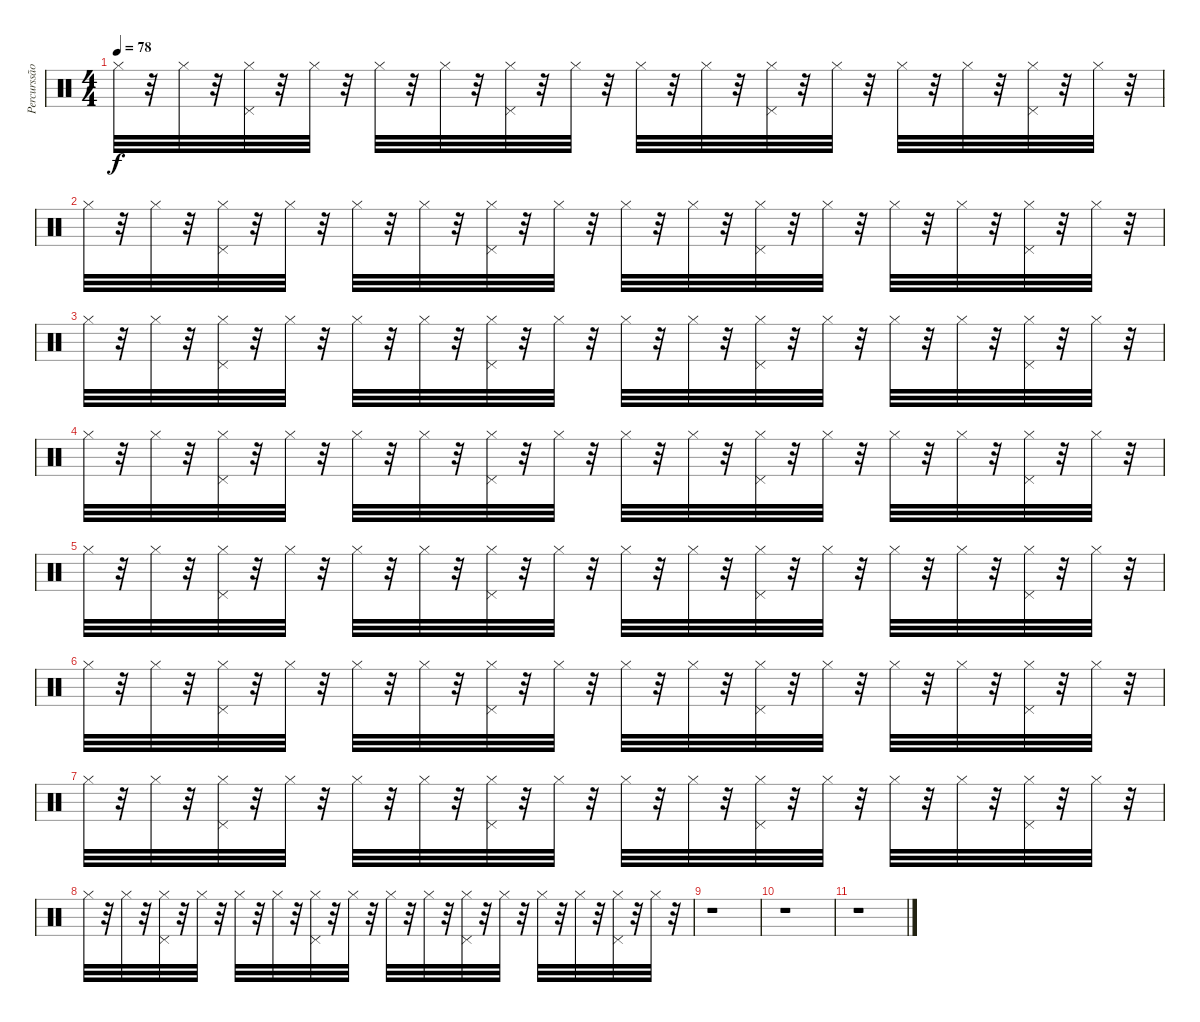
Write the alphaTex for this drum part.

\track ("Percurssão" "Percurssão") {instrument percussion}
\staff {score}
\articulation defaults
\ts (4 4)
\tempo 78
\clef neutral
\ks c "Hi-Hat (closed)".32{dy f}
r.32 "Hi-Hat (closed)".32 r.32 ("Hi-Hat (closed)" "Pedal Hi-Hat (hit)").32 r.32 "Hi-Hat (closed)".32 r.32 "Hi-Hat (closed)".32 r.32 "Hi-Hat (closed)".32 r.32 ("Hi-Hat (closed)" "Pedal Hi-Hat (hit)").32 r.32 "Hi-Hat (closed)".32 r.32 "Hi-Hat (closed)".32 r.32 "Hi-Hat (closed)".32 r.32 ("Hi-Hat (closed)" "Pedal Hi-Hat (hit)").32 r.32 "Hi-Hat (closed)".32 r.32 "Hi-Hat (closed)".32 r.32 "Hi-Hat (closed)".32 r.32 ("Hi-Hat (closed)" "Pedal Hi-Hat (hit)").32 r.32 "Hi-Hat (closed)".32 r.32 |
"Hi-Hat (closed)".32 r.32 "Hi-Hat (closed)".32 r.32 ("Hi-Hat (closed)" "Pedal Hi-Hat (hit)").32 r.32 "Hi-Hat (closed)".32 r.32 "Hi-Hat (closed)".32 r.32 "Hi-Hat (closed)".32 r.32 ("Hi-Hat (closed)" "Pedal Hi-Hat (hit)").32 r.32 "Hi-Hat (closed)".32 r.32 "Hi-Hat (closed)".32 r.32 "Hi-Hat (closed)".32 r.32 ("Hi-Hat (closed)" "Pedal Hi-Hat (hit)").32 r.32 "Hi-Hat (closed)".32 r.32 "Hi-Hat (closed)".32 r.32 "Hi-Hat (closed)".32 r.32 ("Hi-Hat (closed)" "Pedal Hi-Hat (hit)").32 r.32 "Hi-Hat (closed)".32 r.32 |
"Hi-Hat (closed)".32 r.32 "Hi-Hat (closed)".32 r.32 ("Hi-Hat (closed)" "Pedal Hi-Hat (hit)").32 r.32 "Hi-Hat (closed)".32 r.32 "Hi-Hat (closed)".32 r.32 "Hi-Hat (closed)".32 r.32 ("Hi-Hat (closed)" "Pedal Hi-Hat (hit)").32 r.32 "Hi-Hat (closed)".32 r.32 "Hi-Hat (closed)".32 r.32 "Hi-Hat (closed)".32 r.32 ("Hi-Hat (closed)" "Pedal Hi-Hat (hit)").32 r.32 "Hi-Hat (closed)".32 r.32 "Hi-Hat (closed)".32 r.32 "Hi-Hat (closed)".32 r.32 ("Hi-Hat (closed)" "Pedal Hi-Hat (hit)").32 r.32 "Hi-Hat (closed)".32 r.32 |
"Hi-Hat (closed)".32 r.32 "Hi-Hat (closed)".32 r.32 ("Hi-Hat (closed)" "Pedal Hi-Hat (hit)").32 r.32 "Hi-Hat (closed)".32 r.32 "Hi-Hat (closed)".32 r.32 "Hi-Hat (closed)".32 r.32 ("Hi-Hat (closed)" "Pedal Hi-Hat (hit)").32 r.32 "Hi-Hat (closed)".32 r.32 "Hi-Hat (closed)".32 r.32 "Hi-Hat (closed)".32 r.32 ("Hi-Hat (closed)" "Pedal Hi-Hat (hit)").32 r.32 "Hi-Hat (closed)".32 r.32 "Hi-Hat (closed)".32 r.32 "Hi-Hat (closed)".32 r.32 ("Hi-Hat (closed)" "Pedal Hi-Hat (hit)").32 r.32 "Hi-Hat (closed)".32 r.32 |
"Hi-Hat (closed)".32 r.32 "Hi-Hat (closed)".32 r.32 ("Hi-Hat (closed)" "Pedal Hi-Hat (hit)").32 r.32 "Hi-Hat (closed)".32 r.32 "Hi-Hat (closed)".32 r.32 "Hi-Hat (closed)".32 r.32 ("Hi-Hat (closed)" "Pedal Hi-Hat (hit)").32 r.32 "Hi-Hat (closed)".32 r.32 "Hi-Hat (closed)".32 r.32 "Hi-Hat (closed)".32 r.32 ("Hi-Hat (closed)" "Pedal Hi-Hat (hit)").32 r.32 "Hi-Hat (closed)".32 r.32 "Hi-Hat (closed)".32 r.32 "Hi-Hat (closed)".32 r.32 ("Hi-Hat (closed)" "Pedal Hi-Hat (hit)").32 r.32 "Hi-Hat (closed)".32 r.32 |
"Hi-Hat (closed)".32 r.32 "Hi-Hat (closed)".32 r.32 ("Hi-Hat (closed)" "Pedal Hi-Hat (hit)").32 r.32 "Hi-Hat (closed)".32 r.32 "Hi-Hat (closed)".32 r.32 "Hi-Hat (closed)".32 r.32 ("Hi-Hat (closed)" "Pedal Hi-Hat (hit)").32 r.32 "Hi-Hat (closed)".32 r.32 "Hi-Hat (closed)".32 r.32 "Hi-Hat (closed)".32 r.32 ("Hi-Hat (closed)" "Pedal Hi-Hat (hit)").32 r.32 "Hi-Hat (closed)".32 r.32 "Hi-Hat (closed)".32 r.32 "Hi-Hat (closed)".32 r.32 ("Hi-Hat (closed)" "Pedal Hi-Hat (hit)").32 r.32 "Hi-Hat (closed)".32 r.32 |
"Hi-Hat (closed)".32 r.32 "Hi-Hat (closed)".32 r.32 ("Hi-Hat (closed)" "Pedal Hi-Hat (hit)").32 r.32 "Hi-Hat (closed)".32 r.32 "Hi-Hat (closed)".32 r.32 "Hi-Hat (closed)".32 r.32 ("Hi-Hat (closed)" "Pedal Hi-Hat (hit)").32 r.32 "Hi-Hat (closed)".32 r.32 "Hi-Hat (closed)".32 r.32 "Hi-Hat (closed)".32 r.32 ("Hi-Hat (closed)" "Pedal Hi-Hat (hit)").32 r.32 "Hi-Hat (closed)".32 r.32 "Hi-Hat (closed)".32 r.32 "Hi-Hat (closed)".32 r.32 ("Hi-Hat (closed)" "Pedal Hi-Hat (hit)").32 r.32 "Hi-Hat (closed)".32 r.32 |
"Hi-Hat (closed)".32 r.32 "Hi-Hat (closed)".32 r.32 ("Hi-Hat (closed)" "Pedal Hi-Hat (hit)").32 r.32 "Hi-Hat (closed)".32 r.32 "Hi-Hat (closed)".32 r.32 "Hi-Hat (closed)".32 r.32 ("Hi-Hat (closed)" "Pedal Hi-Hat (hit)").32 r.32 "Hi-Hat (closed)".32 r.32 "Hi-Hat (closed)".32 r.32 "Hi-Hat (closed)".32 r.32 ("Hi-Hat (closed)" "Pedal Hi-Hat (hit)").32 r.32 "Hi-Hat (closed)".32 r.32 "Hi-Hat (closed)".32 r.32 "Hi-Hat (closed)".32 r.32 ("Hi-Hat (closed)" "Pedal Hi-Hat (hit)").32 r.32 "Hi-Hat (closed)".32 r.32 |
r.1 |
r.1 |
r.1
